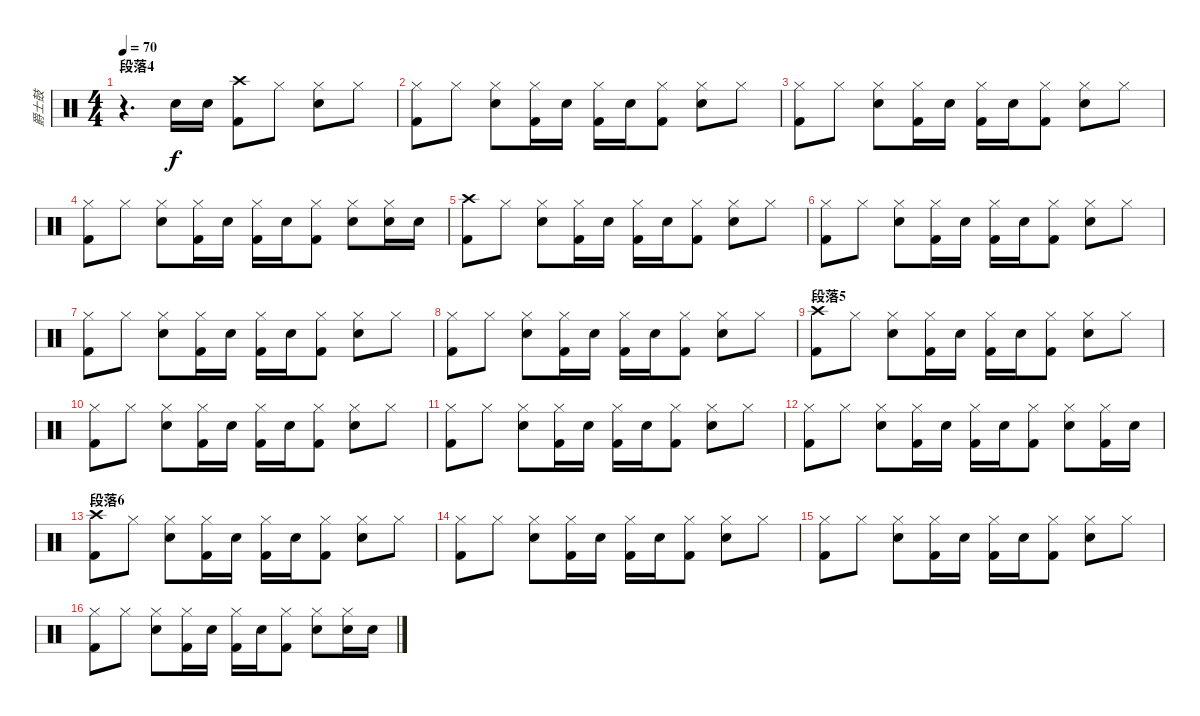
\track ("爵士鼓" "爵士鼓") {instrument percussion}
\staff {score}
\articulation defaults
\ts (4 4)
\section ("" "段落4")
\tempo 70
\clef neutral
\ks c
r.4{d dy f} "Electric Snare (hit)".16 "Electric Snare (hit)".16 ("Crash high (hit)" "Kick (hit) 2").8 "Hi-Hat (closed)".8 ("Hi-Hat (closed)" "Electric Snare (hit)").8 "Hi-Hat (closed)".8 |
("Hi-Hat (closed)" "Kick (hit) 2").8 "Hi-Hat (closed)".8 ("Hi-Hat (closed)" "Electric Snare (hit)").8 ("Hi-Hat (closed)" "Kick (hit) 2").16 "Electric Snare (hit)".16 ("Hi-Hat (closed)" "Kick (hit) 2").16 "Electric Snare (hit)".16 ("Hi-Hat (closed)" "Kick (hit) 2").8 ("Hi-Hat (closed)" "Electric Snare (hit)").8 "Hi-Hat (closed)".8 |
("Hi-Hat (closed)" "Kick (hit) 2").8 "Hi-Hat (closed)".8 ("Hi-Hat (closed)" "Electric Snare (hit)").8 ("Hi-Hat (closed)" "Kick (hit) 2").16 "Electric Snare (hit)".16 ("Hi-Hat (closed)" "Kick (hit) 2").16 "Electric Snare (hit)".16 ("Hi-Hat (closed)" "Kick (hit) 2").8 ("Hi-Hat (closed)" "Electric Snare (hit)").8 "Hi-Hat (closed)".8 |
("Hi-Hat (closed)" "Kick (hit) 2").8 "Hi-Hat (closed)".8 ("Hi-Hat (closed)" "Electric Snare (hit)").8 ("Hi-Hat (closed)" "Kick (hit) 2").16 "Electric Snare (hit)".16 ("Hi-Hat (closed)" "Kick (hit) 2").16 "Electric Snare (hit)".16 ("Hi-Hat (closed)" "Kick (hit) 2").8 ("Hi-Hat (closed)" "Electric Snare (hit)").8 ("Hi-Hat (closed)" "Electric Snare (hit)").16 "Electric Snare (hit)".16 |
("Crash high (hit)" "Kick (hit) 2").8 "Hi-Hat (closed)".8 ("Hi-Hat (closed)" "Electric Snare (hit)").8 ("Hi-Hat (closed)" "Kick (hit) 2").16 "Electric Snare (hit)".16 ("Hi-Hat (closed)" "Kick (hit) 2").16 "Electric Snare (hit)".16 ("Hi-Hat (closed)" "Kick (hit) 2").8 ("Hi-Hat (closed)" "Electric Snare (hit)").8 "Hi-Hat (closed)".8 |
("Hi-Hat (closed)" "Kick (hit) 2").8 "Hi-Hat (closed)".8 ("Hi-Hat (closed)" "Electric Snare (hit)").8 ("Hi-Hat (closed)" "Kick (hit) 2").16 "Electric Snare (hit)".16 ("Hi-Hat (closed)" "Kick (hit) 2").16 "Electric Snare (hit)".16 ("Hi-Hat (closed)" "Kick (hit) 2").8 ("Hi-Hat (closed)" "Electric Snare (hit)").8 "Hi-Hat (closed)".8 |
("Hi-Hat (closed)" "Kick (hit) 2").8 "Hi-Hat (closed)".8 ("Hi-Hat (closed)" "Electric Snare (hit)").8 ("Hi-Hat (closed)" "Kick (hit) 2").16 "Electric Snare (hit)".16 ("Hi-Hat (closed)" "Kick (hit) 2").16 "Electric Snare (hit)".16 ("Hi-Hat (closed)" "Kick (hit) 2").8 ("Hi-Hat (closed)" "Electric Snare (hit)").8 "Hi-Hat (closed)".8 |
("Hi-Hat (closed)" "Kick (hit) 2").8 "Hi-Hat (closed)".8 ("Hi-Hat (closed)" "Electric Snare (hit)").8 ("Hi-Hat (closed)" "Kick (hit) 2").16 "Electric Snare (hit)".16 ("Hi-Hat (closed)" "Kick (hit) 2").16 "Electric Snare (hit)".16 ("Hi-Hat (closed)" "Kick (hit) 2").8 ("Hi-Hat (closed)" "Electric Snare (hit)").8 "Hi-Hat (closed)".8 |
\section ("" "段落5")
("Crash high (hit)" "Kick (hit) 2").8 "Hi-Hat (closed)".8 ("Hi-Hat (closed)" "Electric Snare (hit)").8 ("Hi-Hat (closed)" "Kick (hit) 2").16 "Electric Snare (hit)".16 ("Hi-Hat (closed)" "Kick (hit) 2").16 "Electric Snare (hit)".16 ("Hi-Hat (closed)" "Kick (hit) 2").8 ("Hi-Hat (closed)" "Electric Snare (hit)").8 "Hi-Hat (closed)".8 |
("Hi-Hat (closed)" "Kick (hit) 2").8 "Hi-Hat (closed)".8 ("Hi-Hat (closed)" "Electric Snare (hit)").8 ("Hi-Hat (closed)" "Kick (hit) 2").16 "Electric Snare (hit)".16 ("Hi-Hat (closed)" "Kick (hit) 2").16 "Electric Snare (hit)".16 ("Hi-Hat (closed)" "Kick (hit) 2").8 ("Hi-Hat (closed)" "Electric Snare (hit)").8 "Hi-Hat (closed)".8 |
("Hi-Hat (closed)" "Kick (hit) 2").8 "Hi-Hat (closed)".8 ("Hi-Hat (closed)" "Electric Snare (hit)").8 ("Hi-Hat (closed)" "Kick (hit) 2").16 "Electric Snare (hit)".16 ("Hi-Hat (closed)" "Kick (hit) 2").16 "Electric Snare (hit)".16 ("Hi-Hat (closed)" "Kick (hit) 2").8 ("Hi-Hat (closed)" "Electric Snare (hit)").8 "Hi-Hat (closed)".8 |
("Hi-Hat (closed)" "Kick (hit) 2").8 "Hi-Hat (closed)".8 ("Hi-Hat (closed)" "Electric Snare (hit)").8 ("Hi-Hat (closed)" "Kick (hit) 2").16 "Electric Snare (hit)".16 ("Hi-Hat (closed)" "Kick (hit) 2").16 "Electric Snare (hit)".16 ("Hi-Hat (closed)" "Kick (hit) 2").8 ("Hi-Hat (closed)" "Electric Snare (hit)").8 ("Hi-Hat (closed)" "Kick (hit) 2").16 "Electric Snare (hit)".16 |
\section ("" "段落6")
("Crash high (hit)" "Kick (hit) 2").8 "Hi-Hat (closed)".8 ("Hi-Hat (closed)" "Electric Snare (hit)").8 ("Hi-Hat (closed)" "Kick (hit) 2").16 "Electric Snare (hit)".16 ("Hi-Hat (closed)" "Kick (hit) 2").16 "Electric Snare (hit)".16 ("Hi-Hat (closed)" "Kick (hit) 2").8 ("Hi-Hat (closed)" "Electric Snare (hit)").8 "Hi-Hat (closed)".8 |
("Hi-Hat (closed)" "Kick (hit) 2").8 "Hi-Hat (closed)".8 ("Hi-Hat (closed)" "Electric Snare (hit)").8 ("Hi-Hat (closed)" "Kick (hit) 2").16 "Electric Snare (hit)".16 ("Hi-Hat (closed)" "Kick (hit) 2").16 "Electric Snare (hit)".16 ("Hi-Hat (closed)" "Kick (hit) 2").8 ("Hi-Hat (closed)" "Electric Snare (hit)").8 "Hi-Hat (closed)".8 |
("Hi-Hat (closed)" "Kick (hit) 2").8 "Hi-Hat (closed)".8 ("Hi-Hat (closed)" "Electric Snare (hit)").8 ("Hi-Hat (closed)" "Kick (hit) 2").16 "Electric Snare (hit)".16 ("Hi-Hat (closed)" "Kick (hit) 2").16 "Electric Snare (hit)".16 ("Hi-Hat (closed)" "Kick (hit) 2").8 ("Hi-Hat (closed)" "Electric Snare (hit)").8 "Hi-Hat (closed)".8 |
("Hi-Hat (closed)" "Kick (hit) 2").8 "Hi-Hat (closed)".8 ("Hi-Hat (closed)" "Electric Snare (hit)").8 ("Hi-Hat (closed)" "Kick (hit) 2").16 "Electric Snare (hit)".16 ("Hi-Hat (closed)" "Kick (hit) 2").16 "Electric Snare (hit)".16 ("Hi-Hat (closed)" "Kick (hit) 2").8 ("Hi-Hat (closed)" "Electric Snare (hit)").8 ("Hi-Hat (closed)" "Electric Snare (hit)").16 "Electric Snare (hit)".16
